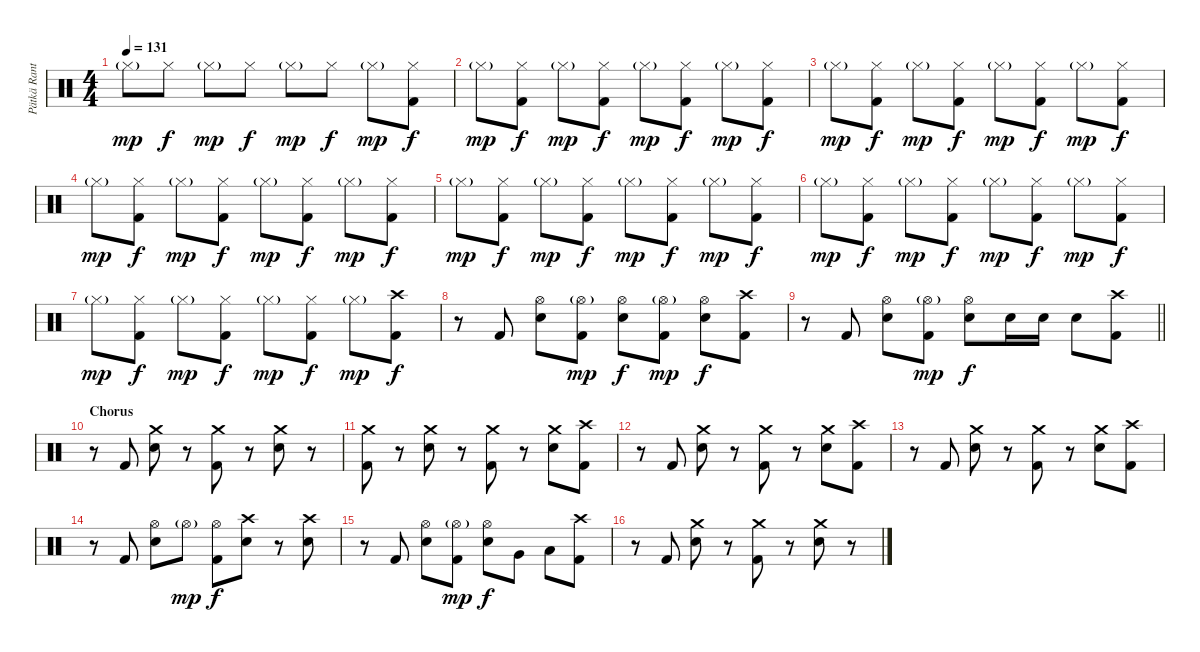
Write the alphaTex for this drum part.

\track ("Pätkä Rantala (Drums)" "Pätkä Rant") {instrument percussion}
\staff {score}
\articulation defaults
\ts (4 4)
\tempo 131
\clef neutral
\ks c "Hi-Hat (closed)"{g}.8{dy mp} "Hi-Hat (closed)".8{dy f} "Hi-Hat (closed)"{g}.8{dy mp} "Hi-Hat (closed)".8{dy f} "Hi-Hat (closed)"{g}.8{dy mp} "Hi-Hat (closed)".8{dy f} "Hi-Hat (closed)"{g}.8{dy mp}
("Hi-Hat (closed)" "Kick (hit) 2").8{dy f} |
"Hi-Hat (closed)"{g}.8{dy mp} ("Hi-Hat (closed)" "Kick (hit) 2").8{dy f} "Hi-Hat (closed)"{g}.8{dy mp} ("Hi-Hat (closed)" "Kick (hit) 2").8{dy f} "Hi-Hat (closed)"{g}.8{dy mp} ("Hi-Hat (closed)" "Kick (hit) 2").8{dy f} "Hi-Hat (closed)"{g}.8{dy mp} ("Hi-Hat (closed)" "Kick (hit) 2").8{dy f} |
"Hi-Hat (closed)"{g}.8{dy mp} ("Hi-Hat (closed)" "Kick (hit) 2").8{dy f} "Hi-Hat (closed)"{g}.8{dy mp} ("Hi-Hat (closed)" "Kick (hit) 2").8{dy f} "Hi-Hat (closed)"{g}.8{dy mp} ("Hi-Hat (closed)" "Kick (hit) 2").8{dy f} "Hi-Hat (closed)"{g}.8{dy mp} ("Hi-Hat (closed)" "Kick (hit) 2").8{dy f} |
"Hi-Hat (closed)"{g}.8{dy mp} ("Hi-Hat (closed)" "Kick (hit) 2").8{dy f} "Hi-Hat (closed)"{g}.8{dy mp} ("Hi-Hat (closed)" "Kick (hit) 2").8{dy f} "Hi-Hat (closed)"{g}.8{dy mp} ("Hi-Hat (closed)" "Kick (hit) 2").8{dy f} "Hi-Hat (closed)"{g}.8{dy mp} ("Hi-Hat (closed)" "Kick (hit) 2").8{dy f} |
"Hi-Hat (closed)"{g}.8{dy mp} ("Hi-Hat (closed)" "Kick (hit) 2").8{dy f} "Hi-Hat (closed)"{g}.8{dy mp} ("Hi-Hat (closed)" "Kick (hit) 2").8{dy f} "Hi-Hat (closed)"{g}.8{dy mp} ("Hi-Hat (closed)" "Kick (hit) 2").8{dy f} "Hi-Hat (closed)"{g}.8{dy mp} ("Hi-Hat (closed)" "Kick (hit) 2").8{dy f} |
"Hi-Hat (closed)"{g}.8{dy mp} ("Hi-Hat (closed)" "Kick (hit) 2").8{dy f} "Hi-Hat (closed)"{g}.8{dy mp} ("Hi-Hat (closed)" "Kick (hit) 2").8{dy f} "Hi-Hat (closed)"{g}.8{dy mp} ("Hi-Hat (closed)" "Kick (hit) 2").8{dy f} "Hi-Hat (closed)"{g}.8{dy mp} ("Hi-Hat (closed)" "Kick (hit) 2").8{dy f} |
"Hi-Hat (closed)"{g}.8{dy mp} ("Hi-Hat (closed)" "Kick (hit) 2").8{dy f} "Hi-Hat (closed)"{g}.8{dy mp} ("Hi-Hat (closed)" "Kick (hit) 2").8{dy f} "Hi-Hat (closed)"{g}.8{dy mp} ("Hi-Hat (closed)" "Kick (hit) 2").8{dy f} "Hi-Hat (closed)"{g}.8{dy mp} ("Crash high (hit)" "Kick (hit) 2").8{dy f} |
r.8 "Kick (hit) 2".8 ("Hi-Hat (open)" "Snare (hit) 2").8 ("Hi-Hat (open)"{g} "Kick (hit) 2").8{dy mp} ("Hi-Hat (open)" "Snare (hit) 2").8{dy f} ("Hi-Hat (open)"{g} "Kick (hit) 2").8{dy mp} ("Hi-Hat (open)" "Snare (hit) 2").8{dy f} ("Crash high (hit)" "Kick (hit) 2").8 |
\barLineRight lightlight
r.8 "Kick (hit) 2".8 ("Hi-Hat (open)" "Snare (hit) 2").8 ("Hi-Hat (open)"{g} "Kick (hit) 2").8{dy mp} ("Hi-Hat (open)" "Snare (hit) 2").8{dy f} "Snare (hit) 2".16 "Snare (hit) 2".16 "Snare (hit) 2".8 ("Crash high (hit)" "Kick (hit) 2").8 |
\section ("" "Chorus")
r.8 "Kick (hit) 2".8 ("Crash medium (hit)" "Snare (hit) 2").8 r.8 ("Crash medium (hit)" "Kick (hit) 2").8 r.8 ("Crash medium (hit)" "Snare (hit) 2").8 r.8 |
("Crash medium (hit)" "Kick (hit) 2").8 r.8 ("Crash medium (hit)" "Snare (hit) 2").8 r.8 ("Crash medium (hit)" "Kick (hit) 2").8 r.8 ("Crash medium (hit)" "Snare (hit) 2").8 ("Crash high (hit)" "Kick (hit) 2").8 |
r.8 "Kick (hit) 2".8 ("Crash medium (hit)" "Snare (hit) 2").8 r.8 ("Crash medium (hit)" "Kick (hit) 2").8 r.8 ("Crash medium (hit)" "Snare (hit) 2").8 ("Crash high (hit)" "Kick (hit) 2").8 |
r.8 "Kick (hit) 2".8 ("Crash medium (hit)" "Snare (hit) 2").8 r.8 ("Crash medium (hit)" "Kick (hit) 2").8 r.8 ("Crash medium (hit)" "Snare (hit) 2").8 ("Crash high (hit)" "Kick (hit) 2").8 |
r.8 "Kick (hit) 2".8 ("Hi-Hat (open)" "Snare (hit) 2").8 "Hi-Hat (open)"{g}.8{dy mp} ("Hi-Hat (open)" "Kick (hit) 2").8{dy f} ("Crash high (hit)" "Snare (hit) 2").8 r.8 ("Crash high (hit)" "Snare (hit) 2").8 |
r.8 "Kick (hit) 2".8 ("Hi-Hat (open)" "Snare (hit) 2").8 ("Hi-Hat (open)"{g} "Kick (hit) 2").8{dy mp} ("Hi-Hat (open)" "Snare (hit) 2").8{dy f} "Very Low Tom (hit)".8 "Low Floor Tom (hit)".8 ("Crash high (hit)" "Kick (hit) 2").8 |
r.8 "Kick (hit) 2".8 ("Crash medium (hit)" "Snare (hit) 2").8 r.8 ("Crash medium (hit)" "Kick (hit) 2").8 r.8 ("Crash medium (hit)" "Snare (hit) 2").8 r.8
